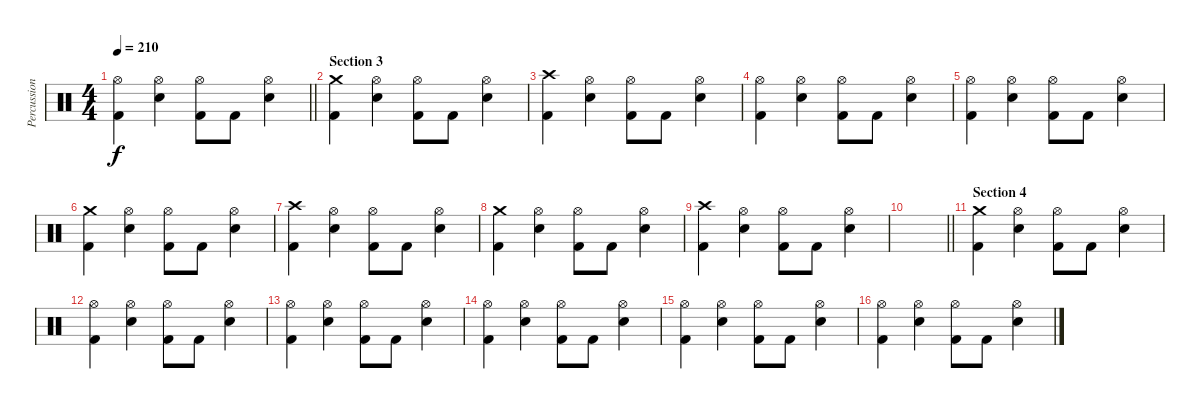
\track ("Percussion" "Percussion") {instrument percussion}
\staff {score}
\articulation defaults
\ts (4 4)
\tempo 210
\clef neutral
\barLineRight lightlight
\ks c
("Kick (hit) 2" "Hi-Hat (open)").4{dy f} ("Electric Snare (hit)" "Hi-Hat (open)").4 ("Kick (hit) 2" "Hi-Hat (open)").8 "Kick (hit) 2".8 ("Electric Snare (hit)" "Hi-Hat (open)").4 |
\section ("" "Section 3")
("Kick (hit) 2" "Crash medium (hit)").4 ("Electric Snare (hit)" "Hi-Hat (open)").4 ("Kick (hit) 2" "Hi-Hat (open)").8 "Kick (hit) 2".8 ("Electric Snare (hit)" "Hi-Hat (open)").4 |
("Kick (hit) 2" "Crash high (hit)").4 ("Electric Snare (hit)" "Hi-Hat (open)").4 ("Kick (hit) 2" "Hi-Hat (open)").8 "Kick (hit) 2".8 ("Electric Snare (hit)" "Hi-Hat (open)").4 |
("Kick (hit) 2" "Hi-Hat (open)").4 ("Electric Snare (hit)" "Hi-Hat (open)").4 ("Kick (hit) 2" "Hi-Hat (open)").8 "Kick (hit) 2".8 ("Electric Snare (hit)" "Hi-Hat (open)").4 |
("Kick (hit) 2" "Hi-Hat (open)").4 ("Electric Snare (hit)" "Hi-Hat (open)").4 ("Kick (hit) 2" "Hi-Hat (open)").8 "Kick (hit) 2".8 ("Electric Snare (hit)" "Hi-Hat (open)").4 |
("Kick (hit) 2" "Crash medium (hit)").4 ("Electric Snare (hit)" "Hi-Hat (open)").4 ("Kick (hit) 2" "Hi-Hat (open)").8 "Kick (hit) 2".8 ("Electric Snare (hit)" "Hi-Hat (open)").4 |
("Kick (hit) 2" "Crash high (hit)").4 ("Electric Snare (hit)" "Hi-Hat (open)").4 ("Kick (hit) 2" "Hi-Hat (open)").8 "Kick (hit) 2".8 ("Electric Snare (hit)" "Hi-Hat (open)").4 |
("Kick (hit) 2" "Crash medium (hit)").4 ("Electric Snare (hit)" "Hi-Hat (open)").4 ("Kick (hit) 2" "Hi-Hat (open)").8 "Kick (hit) 2".8 ("Electric Snare (hit)" "Hi-Hat (open)").4 |
("Kick (hit) 2" "Crash high (hit)").4 ("Electric Snare (hit)" "Hi-Hat (open)").4 ("Kick (hit) 2" "Hi-Hat (open)").8 "Kick (hit) 2".8 ("Electric Snare (hit)" "Hi-Hat (open)").4 |
\barLineRight lightlight
|
\section ("" "Section 4")
("Kick (hit) 2" "Crash medium (hit)").4 ("Electric Snare (hit)" "Hi-Hat (open)").4 ("Kick (hit) 2" "Hi-Hat (open)").8 "Kick (hit) 2".8 ("Electric Snare (hit)" "Hi-Hat (open)").4 |
("Kick (hit) 2" "Hi-Hat (open)").4 ("Electric Snare (hit)" "Hi-Hat (open)").4 ("Kick (hit) 2" "Hi-Hat (open)").8 "Kick (hit) 2".8 ("Electric Snare (hit)" "Hi-Hat (open)").4 |
("Kick (hit) 2" "Hi-Hat (open)").4 ("Electric Snare (hit)" "Hi-Hat (open)").4 ("Kick (hit) 2" "Hi-Hat (open)").8 "Kick (hit) 2".8 ("Electric Snare (hit)" "Hi-Hat (open)").4 |
("Kick (hit) 2" "Hi-Hat (open)").4 ("Electric Snare (hit)" "Hi-Hat (open)").4 ("Kick (hit) 2" "Hi-Hat (open)").8 "Kick (hit) 2".8 ("Electric Snare (hit)" "Hi-Hat (open)").4 |
("Kick (hit) 2" "Hi-Hat (open)").4 ("Electric Snare (hit)" "Hi-Hat (open)").4 ("Kick (hit) 2" "Hi-Hat (open)").8 "Kick (hit) 2".8 ("Electric Snare (hit)" "Hi-Hat (open)").4 |
("Kick (hit) 2" "Hi-Hat (open)").4 ("Electric Snare (hit)" "Hi-Hat (open)").4 ("Kick (hit) 2" "Hi-Hat (open)").8 "Kick (hit) 2".8 ("Electric Snare (hit)" "Hi-Hat (open)").4
